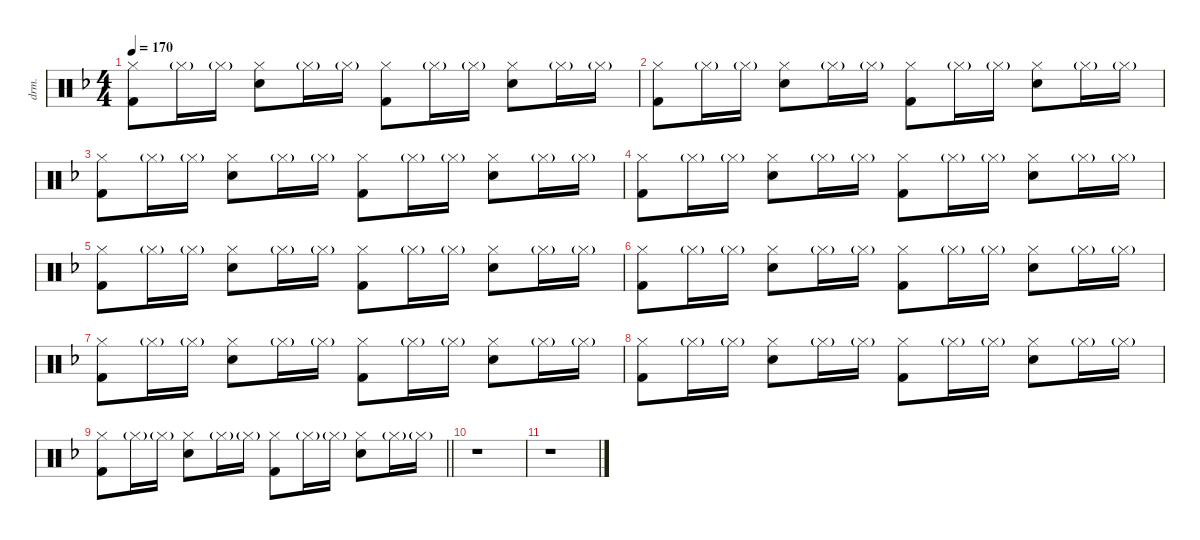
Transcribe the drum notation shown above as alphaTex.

\defaultSystemsLayout 4
\hideDynamics
\bracketExtendMode nobrackets
\otherSystemsTrackNameOrientation horizontal
\track ("Drums" "drm.") {instrument percussion}
\staff {score}
\articulation defaults
\ts (4 4)
\tempo 170
\clef neutral
\ks dminor
("Hi-Hat (closed)"{acc forcenatural} "Kick (hit) 2"{acc forcenatural}).8{dy f} "Hi-Hat (closed)"{g acc forcenatural}.16{dy mf} "Hi-Hat (closed)"{g acc forcenatural}.16 ("Hi-Hat (closed)"{acc forcenatural} "Snare (hit) 2"{acc forcenatural}).8{dy mp} "Hi-Hat (closed)"{g acc forcenatural}.16{dy mf} "Hi-Hat (closed)"{g acc forcenatural}.16 ("Hi-Hat (closed)"{acc forcenatural} "Kick (hit) 2"{acc forcenatural}).8{dy f} "Hi-Hat (closed)"{g acc forcenatural}.16{dy mf} "Hi-Hat (closed)"{g acc forcenatural}.16 ("Hi-Hat (closed)"{acc forcenatural} "Snare (hit) 2"{acc forcenatural}).8{dy mp} "Hi-Hat (closed)"{g acc forcenatural}.16{dy mf} "Hi-Hat (closed)"{g acc forcenatural}.16 |
("Hi-Hat (closed)"{acc forcenatural} "Kick (hit) 2"{acc forcenatural}).8{dy f} "Hi-Hat (closed)"{g acc forcenatural}.16{dy mf} "Hi-Hat (closed)"{g acc forcenatural}.16 ("Hi-Hat (closed)"{acc forcenatural} "Snare (hit) 2"{acc forcenatural}).8{dy mp} "Hi-Hat (closed)"{g acc forcenatural}.16{dy mf} "Hi-Hat (closed)"{g acc forcenatural}.16 ("Hi-Hat (closed)"{acc forcenatural} "Kick (hit) 2"{acc forcenatural}).8{dy f} "Hi-Hat (closed)"{g acc forcenatural}.16{dy mf} "Hi-Hat (closed)"{g acc forcenatural}.16 ("Hi-Hat (closed)"{acc forcenatural} "Snare (hit) 2"{acc forcenatural}).8{dy mp} "Hi-Hat (closed)"{g acc forcenatural}.16{dy mf} "Hi-Hat (closed)"{g acc forcenatural}.16 |
("Hi-Hat (closed)"{acc forcenatural} "Kick (hit) 2"{acc forcenatural}).8{dy f} "Hi-Hat (closed)"{g acc forcenatural}.16{dy mf} "Hi-Hat (closed)"{g acc forcenatural}.16 ("Hi-Hat (closed)"{acc forcenatural} "Snare (hit) 2"{acc forcenatural}).8{dy mp} "Hi-Hat (closed)"{g acc forcenatural}.16{dy mf} "Hi-Hat (closed)"{g acc forcenatural}.16 ("Hi-Hat (closed)"{acc forcenatural} "Kick (hit) 2"{acc forcenatural}).8{dy f} "Hi-Hat (closed)"{g acc forcenatural}.16{dy mf} "Hi-Hat (closed)"{g acc forcenatural}.16 ("Hi-Hat (closed)"{acc forcenatural} "Snare (hit) 2"{acc forcenatural}).8{dy mp} "Hi-Hat (closed)"{g acc forcenatural}.16{dy mf} "Hi-Hat (closed)"{g acc forcenatural}.16 |
("Hi-Hat (closed)"{acc forcenatural} "Kick (hit) 2"{acc forcenatural}).8{dy f} "Hi-Hat (closed)"{g acc forcenatural}.16{dy mf} "Hi-Hat (closed)"{g acc forcenatural}.16 ("Hi-Hat (closed)"{acc forcenatural} "Snare (hit) 2"{acc forcenatural}).8{dy mp} "Hi-Hat (closed)"{g acc forcenatural}.16{dy mf} "Hi-Hat (closed)"{g acc forcenatural}.16 ("Hi-Hat (closed)"{acc forcenatural} "Kick (hit) 2"{acc forcenatural}).8{dy f} "Hi-Hat (closed)"{g acc forcenatural}.16{dy mf} "Hi-Hat (closed)"{g acc forcenatural}.16 ("Hi-Hat (closed)"{acc forcenatural} "Snare (hit) 2"{acc forcenatural}).8{dy mp} "Hi-Hat (closed)"{g acc forcenatural}.16{dy mf} "Hi-Hat (closed)"{g acc forcenatural}.16 |
("Hi-Hat (closed)"{acc forcenatural} "Kick (hit) 2"{acc forcenatural}).8{dy f} "Hi-Hat (closed)"{g acc forcenatural}.16{dy mf} "Hi-Hat (closed)"{g acc forcenatural}.16 ("Hi-Hat (closed)"{acc forcenatural} "Snare (hit) 2"{acc forcenatural}).8{dy mp} "Hi-Hat (closed)"{g acc forcenatural}.16{dy mf} "Hi-Hat (closed)"{g acc forcenatural}.16 ("Hi-Hat (closed)"{acc forcenatural} "Kick (hit) 2"{acc forcenatural}).8{dy f} "Hi-Hat (closed)"{g acc forcenatural}.16{dy mf} "Hi-Hat (closed)"{g acc forcenatural}.16 ("Hi-Hat (closed)"{acc forcenatural} "Snare (hit) 2"{acc forcenatural}).8{dy mp} "Hi-Hat (closed)"{g acc forcenatural}.16{dy mf} "Hi-Hat (closed)"{g acc forcenatural}.16 |
("Hi-Hat (closed)"{acc forcenatural} "Kick (hit) 2"{acc forcenatural}).8{dy f} "Hi-Hat (closed)"{g acc forcenatural}.16{dy mf} "Hi-Hat (closed)"{g acc forcenatural}.16 ("Hi-Hat (closed)"{acc forcenatural} "Snare (hit) 2"{acc forcenatural}).8{dy mp} "Hi-Hat (closed)"{g acc forcenatural}.16{dy mf} "Hi-Hat (closed)"{g acc forcenatural}.16 ("Hi-Hat (closed)"{acc forcenatural} "Kick (hit) 2"{acc forcenatural}).8{dy f} "Hi-Hat (closed)"{g acc forcenatural}.16{dy mf} "Hi-Hat (closed)"{g acc forcenatural}.16 ("Hi-Hat (closed)"{acc forcenatural} "Snare (hit) 2"{acc forcenatural}).8{dy mp} "Hi-Hat (closed)"{g acc forcenatural}.16{dy mf} "Hi-Hat (closed)"{g acc forcenatural}.16 |
("Hi-Hat (closed)"{acc forcenatural} "Kick (hit) 2"{acc forcenatural}).8{dy f} "Hi-Hat (closed)"{g acc forcenatural}.16{dy mf} "Hi-Hat (closed)"{g acc forcenatural}.16 ("Hi-Hat (closed)"{acc forcenatural} "Snare (hit) 2"{acc forcenatural}).8{dy mp} "Hi-Hat (closed)"{g acc forcenatural}.16{dy mf} "Hi-Hat (closed)"{g acc forcenatural}.16 ("Hi-Hat (closed)"{acc forcenatural} "Kick (hit) 2"{acc forcenatural}).8{dy f} "Hi-Hat (closed)"{g acc forcenatural}.16{dy mf} "Hi-Hat (closed)"{g acc forcenatural}.16 ("Hi-Hat (closed)"{acc forcenatural} "Snare (hit) 2"{acc forcenatural}).8{dy mp} "Hi-Hat (closed)"{g acc forcenatural}.16{dy mf} "Hi-Hat (closed)"{g acc forcenatural}.16 |
("Hi-Hat (closed)"{acc forcenatural} "Kick (hit) 2"{acc forcenatural}).8{dy f} "Hi-Hat (closed)"{g acc forcenatural}.16{dy mf} "Hi-Hat (closed)"{g acc forcenatural}.16 ("Hi-Hat (closed)"{acc forcenatural} "Snare (hit) 2"{acc forcenatural}).8{dy mp} "Hi-Hat (closed)"{g acc forcenatural}.16{dy mf} "Hi-Hat (closed)"{g acc forcenatural}.16 ("Hi-Hat (closed)"{acc forcenatural} "Kick (hit) 2"{acc forcenatural}).8{dy f} "Hi-Hat (closed)"{g acc forcenatural}.16{dy mf} "Hi-Hat (closed)"{g acc forcenatural}.16 ("Hi-Hat (closed)"{acc forcenatural} "Snare (hit) 2"{acc forcenatural}).8{dy mp} "Hi-Hat (closed)"{g acc forcenatural}.16{dy mf} "Hi-Hat (closed)"{g acc forcenatural}.16 |
\barLineRight lightlight
("Hi-Hat (closed)"{acc forcenatural} "Kick (hit) 2"{acc forcenatural}).8{dy f} "Hi-Hat (closed)"{g acc forcenatural}.16{dy mf} "Hi-Hat (closed)"{g acc forcenatural}.16 ("Hi-Hat (closed)"{acc forcenatural} "Snare (hit) 2"{acc forcenatural}).8{dy mp} "Hi-Hat (closed)"{g acc forcenatural}.16{dy mf} "Hi-Hat (closed)"{g acc forcenatural}.16 ("Hi-Hat (closed)"{acc forcenatural} "Kick (hit) 2"{acc forcenatural}).8{dy f} "Hi-Hat (closed)"{g acc forcenatural}.16{dy mf} "Hi-Hat (closed)"{g acc forcenatural}.16 ("Hi-Hat (closed)"{acc forcenatural} "Snare (hit) 2"{acc forcenatural}).8{dy mp} "Hi-Hat (closed)"{g acc forcenatural}.16{dy mf} "Hi-Hat (closed)"{g acc forcenatural}.16 |
\section ("" "")
r.1 |
r.1
